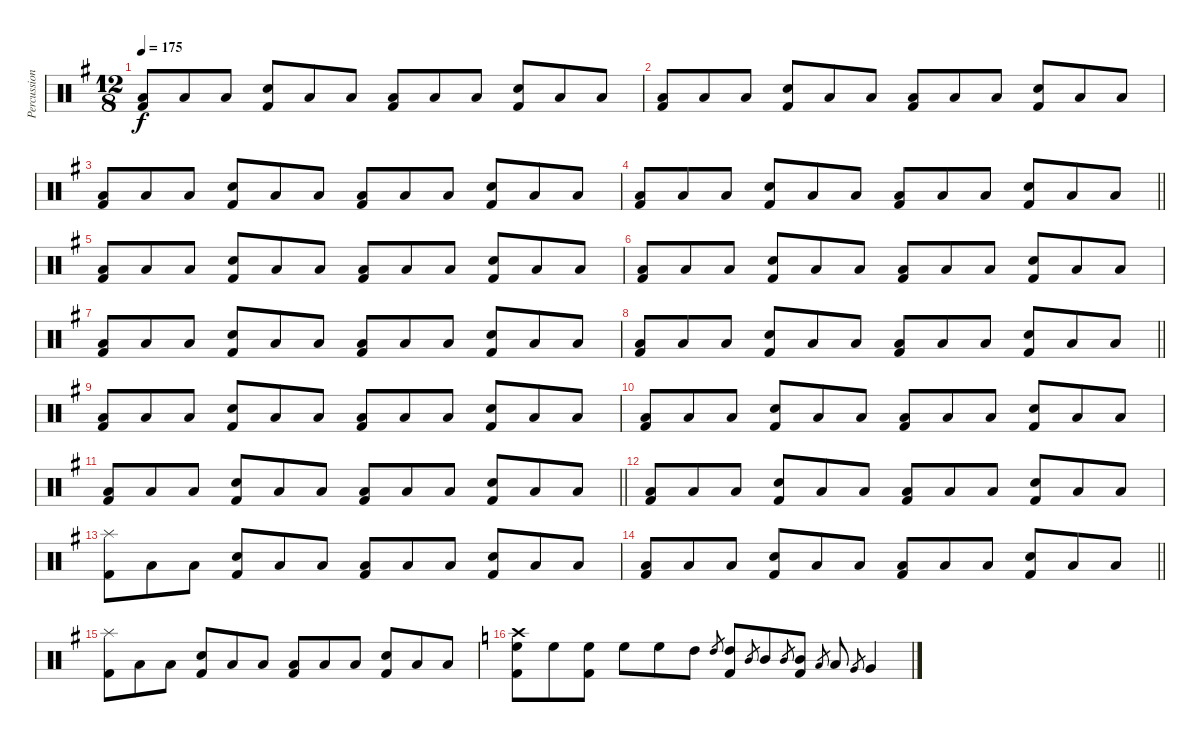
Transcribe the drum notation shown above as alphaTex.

\track ("Percussion" "Percussion") {instrument percussion}
\staff {score}
\articulation defaults
\ts (12 8)
\tempo 175
\clef neutral
\ks g
("Low Tom (hit)" "Kick (hit) 2").8{dy f} "Low Tom (hit)".8 "Low Tom (hit)".8 ("Snare (hit) 2" "Kick (hit) 2").8 "Low Tom (hit)".8 "Low Tom (hit)".8 ("Low Tom (hit)" "Kick (hit) 2").8 "Low Tom (hit)".8 "Low Tom (hit)".8 ("Snare (hit) 2" "Kick (hit) 2").8 "Low Tom (hit)".8 "Low Tom (hit)".8 |
("Low Tom (hit)" "Kick (hit) 2").8 "Low Tom (hit)".8 "Low Tom (hit)".8 ("Snare (hit) 2" "Kick (hit) 2").8 "Low Tom (hit)".8 "Low Tom (hit)".8 ("Low Tom (hit)" "Kick (hit) 2").8 "Low Tom (hit)".8 "Low Tom (hit)".8 ("Snare (hit) 2" "Kick (hit) 2").8 "Low Tom (hit)".8 "Low Tom (hit)".8 |
("Low Tom (hit)" "Kick (hit) 2").8 "Low Tom (hit)".8 "Low Tom (hit)".8 ("Snare (hit) 2" "Kick (hit) 2").8 "Low Tom (hit)".8 "Low Tom (hit)".8 ("Low Tom (hit)" "Kick (hit) 2").8 "Low Tom (hit)".8 "Low Tom (hit)".8 ("Snare (hit) 2" "Kick (hit) 2").8 "Low Tom (hit)".8 "Low Tom (hit)".8 |
\barLineRight lightlight
("Low Tom (hit)" "Kick (hit) 2").8 "Low Tom (hit)".8 "Low Tom (hit)".8 ("Snare (hit) 2" "Kick (hit) 2").8 "Low Tom (hit)".8 "Low Tom (hit)".8 ("Low Tom (hit)" "Kick (hit) 2").8 "Low Tom (hit)".8 "Low Tom (hit)".8 ("Snare (hit) 2" "Kick (hit) 2").8 "Low Tom (hit)".8 "Low Tom (hit)".8 |
("Low Tom (hit)" "Kick (hit) 2").8 "Low Tom (hit)".8 "Low Tom (hit)".8 ("Snare (hit) 2" "Kick (hit) 2").8 "Low Tom (hit)".8 "Low Tom (hit)".8 ("Low Tom (hit)" "Kick (hit) 2").8 "Low Tom (hit)".8 "Low Tom (hit)".8 ("Snare (hit) 2" "Kick (hit) 2").8 "Low Tom (hit)".8 "Low Tom (hit)".8 |
("Low Tom (hit)" "Kick (hit) 2").8 "Low Tom (hit)".8 "Low Tom (hit)".8 ("Snare (hit) 2" "Kick (hit) 2").8 "Low Tom (hit)".8 "Low Tom (hit)".8 ("Low Tom (hit)" "Kick (hit) 2").8 "Low Tom (hit)".8 "Low Tom (hit)".8 ("Snare (hit) 2" "Kick (hit) 2").8 "Low Tom (hit)".8 "Low Tom (hit)".8 |
("Low Tom (hit)" "Kick (hit) 2").8 "Low Tom (hit)".8 "Low Tom (hit)".8 ("Snare (hit) 2" "Kick (hit) 2").8 "Low Tom (hit)".8 "Low Tom (hit)".8 ("Low Tom (hit)" "Kick (hit) 2").8 "Low Tom (hit)".8 "Low Tom (hit)".8 ("Snare (hit) 2" "Kick (hit) 2").8 "Low Tom (hit)".8 "Low Tom (hit)".8 |
\barLineRight lightlight
("Low Tom (hit)" "Kick (hit) 2").8 "Low Tom (hit)".8 "Low Tom (hit)".8 ("Snare (hit) 2" "Kick (hit) 2").8 "Low Tom (hit)".8 "Low Tom (hit)".8 ("Low Tom (hit)" "Kick (hit) 2").8 "Low Tom (hit)".8 "Low Tom (hit)".8 ("Snare (hit) 2" "Kick (hit) 2").8 "Low Tom (hit)".8 "Low Tom (hit)".8 |
("Low Tom (hit)" "Kick (hit) 2").8 "Low Tom (hit)".8 "Low Tom (hit)".8 ("Snare (hit) 2" "Kick (hit) 2").8 "Low Tom (hit)".8 "Low Tom (hit)".8 ("Low Tom (hit)" "Kick (hit) 2").8 "Low Tom (hit)".8 "Low Tom (hit)".8 ("Snare (hit) 2" "Kick (hit) 2").8 "Low Tom (hit)".8 "Low Tom (hit)".8 |
("Low Tom (hit)" "Kick (hit) 2").8 "Low Tom (hit)".8 "Low Tom (hit)".8 ("Snare (hit) 2" "Kick (hit) 2").8 "Low Tom (hit)".8 "Low Tom (hit)".8 ("Low Tom (hit)" "Kick (hit) 2").8 "Low Tom (hit)".8 "Low Tom (hit)".8 ("Snare (hit) 2" "Kick (hit) 2").8 "Low Tom (hit)".8 "Low Tom (hit)".8 |
\barLineRight lightlight
("Low Tom (hit)" "Kick (hit) 2").8 "Low Tom (hit)".8 "Low Tom (hit)".8 ("Snare (hit) 2" "Kick (hit) 2").8 "Low Tom (hit)".8 "Low Tom (hit)".8 ("Low Tom (hit)" "Kick (hit) 2").8 "Low Tom (hit)".8 "Low Tom (hit)".8 ("Snare (hit) 2" "Kick (hit) 2").8 "Low Tom (hit)".8 "Low Tom (hit)".8 |
("Low Tom (hit)" "Kick (hit) 2").8 "Low Tom (hit)".8 "Low Tom (hit)".8 ("Snare (hit) 2" "Kick (hit) 2").8 "Low Tom (hit)".8 "Low Tom (hit)".8 ("Low Tom (hit)" "Kick (hit) 2").8 "Low Tom (hit)".8 "Low Tom (hit)".8 ("Snare (hit) 2" "Kick (hit) 2").8 "Low Tom (hit)".8 "Low Tom (hit)".8 |
("Splash (hit)" "Kick (hit) 2").8 "Low Tom (hit)".8 "Low Tom (hit)".8 ("Snare (hit) 2" "Kick (hit) 2").8 "Low Tom (hit)".8 "Low Tom (hit)".8 ("Low Tom (hit)" "Kick (hit) 2").8 "Low Tom (hit)".8 "Low Tom (hit)".8 ("Snare (hit) 2" "Kick (hit) 2").8 "Low Tom (hit)".8 "Low Tom (hit)".8 |
\barLineRight lightlight
("Low Tom (hit)" "Kick (hit) 2").8 "Low Tom (hit)".8 "Low Tom (hit)".8 ("Snare (hit) 2" "Kick (hit) 2").8 "Low Tom (hit)".8 "Low Tom (hit)".8 ("Low Tom (hit)" "Kick (hit) 2").8 "Low Tom (hit)".8 "Low Tom (hit)".8 ("Snare (hit) 2" "Kick (hit) 2").8 "Low Tom (hit)".8 "Low Tom (hit)".8 |
("Splash (hit)" "Kick (hit) 2").8 "Low Tom (hit)".8 "Low Tom (hit)".8 ("Snare (hit) 2" "Kick (hit) 2").8 "Low Tom (hit)".8 "Low Tom (hit)".8 ("Low Tom (hit)" "Kick (hit) 2").8 "Low Tom (hit)".8 "Low Tom (hit)".8 ("Snare (hit) 2" "Kick (hit) 2").8 "Low Tom (hit)".8 "Low Tom (hit)".8 |
\ks c
("Kick (hit) 2" "High Floor Tom (hit)" "Crash high (hit)").8 "High Floor Tom (hit)".8 ("Kick (hit) 2" "High Floor Tom (hit)").8 "High Floor Tom (hit)".8 "High Floor Tom (hit)".8 "High Tom (hit)".8 "High Tom (hit)".8{gr} ("Kick (hit) 2" "High Tom (hit)").8 "Mid Tom (hit)".8{gr} "Mid Tom (hit)".8 "Mid Tom (hit)".8{gr} ("Kick (hit) 2" "Mid Tom (hit)").8 "Low Tom (hit)".8{gr} "Low Tom (hit)".8 "Very Low Tom (hit)".8{gr} "Very Low Tom (hit)".4
